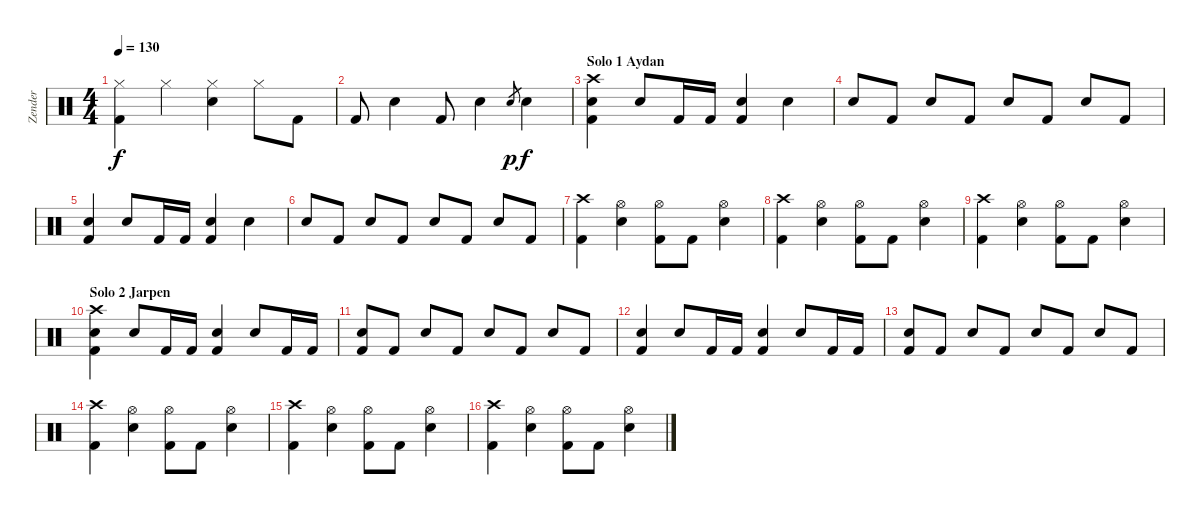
\track ("Zender" "Zender") {instrument percussion}
\staff {score}
\articulation defaults
\ts (4 4)
\tempo 130
\clef neutral
\ks c
("Hi-Hat (closed)" "Kick (hit) 2").4{dy f} "Hi-Hat (closed)".4 ("Electric Snare (hit)" "Hi-Hat (closed)").4 "Hi-Hat (closed)".8 "Kick (hit) 2".8 |
"Kick (hit) 2".8 "Electric Snare (hit)".4 "Kick (hit) 2".8 "Electric Snare (hit)".4 "Electric Snare (hit)".8{gr dy p} "Electric Snare (hit)".4{dy f} |
\section ("" "Solo 1 Aydan")
("Crash high (hit)" "Electric Snare (hit)" "Kick (hit) 2").4{volume 13} "Electric Snare (hit)".8 "Kick (hit) 2".16 "Kick (hit) 2".16 ("Electric Snare (hit)" "Kick (hit) 2").4 "Electric Snare (hit)".4 |
"Electric Snare (hit)".8 "Kick (hit) 2".8 "Electric Snare (hit)".8 "Kick (hit) 2".8 "Electric Snare (hit)".8 "Kick (hit) 2".8 "Electric Snare (hit)".8 "Kick (hit) 2".8 |
("Electric Snare (hit)" "Kick (hit) 2").4 "Electric Snare (hit)".8 "Kick (hit) 2".16 "Kick (hit) 2".16 ("Electric Snare (hit)" "Kick (hit) 2").4 "Electric Snare (hit)".4 |
"Electric Snare (hit)".8 "Kick (hit) 2".8 "Electric Snare (hit)".8 "Kick (hit) 2".8 "Electric Snare (hit)".8 "Kick (hit) 2".8 "Electric Snare (hit)".8 "Kick (hit) 2".8 |
("Crash high (hit)" "Kick (hit) 2").4 ("Hi-Hat (open)" "Electric Snare (hit)").4 ("Hi-Hat (open)" "Kick (hit) 2").8 "Kick (hit) 2".8 ("Hi-Hat (open)" "Electric Snare (hit)").4 |
("Crash high (hit)" "Kick (hit) 2").4 ("Hi-Hat (open)" "Electric Snare (hit)").4 ("Hi-Hat (open)" "Kick (hit) 2").8 "Kick (hit) 2".8 ("Hi-Hat (open)" "Electric Snare (hit)").4 |
("Crash high (hit)" "Kick (hit) 2").4 ("Hi-Hat (open)" "Electric Snare (hit)").4 ("Hi-Hat (open)" "Kick (hit) 2").8 "Kick (hit) 2".8 ("Hi-Hat (open)" "Electric Snare (hit)").4 |
\section ("" "Solo 2 Jarpen")
("Crash high (hit)" "Electric Snare (hit)" "Kick (hit) 2").4 "Electric Snare (hit)".8 "Kick (hit) 2".16 "Kick (hit) 2".16 ("Electric Snare (hit)" "Kick (hit) 2").4 "Electric Snare (hit)".8 "Kick (hit) 2".16 "Kick (hit) 2".16 |
("Electric Snare (hit)" "Kick (hit) 2").8 "Kick (hit) 2".8 "Electric Snare (hit)".8 "Kick (hit) 2".8 "Electric Snare (hit)".8 "Kick (hit) 2".8 "Electric Snare (hit)".8 "Kick (hit) 2".8 |
("Electric Snare (hit)" "Kick (hit) 2").4 "Electric Snare (hit)".8 "Kick (hit) 2".16 "Kick (hit) 2".16 ("Electric Snare (hit)" "Kick (hit) 2").4 "Electric Snare (hit)".8 "Kick (hit) 2".16 "Kick (hit) 2".16 |
("Electric Snare (hit)" "Kick (hit) 2").8 "Kick (hit) 2".8 "Electric Snare (hit)".8 "Kick (hit) 2".8 "Electric Snare (hit)".8 "Kick (hit) 2".8 "Electric Snare (hit)".8 "Kick (hit) 2".8 |
("Crash high (hit)" "Kick (hit) 2").4 ("Hi-Hat (open)" "Electric Snare (hit)").4 ("Hi-Hat (open)" "Kick (hit) 2").8 "Kick (hit) 2".8 ("Hi-Hat (open)" "Electric Snare (hit)").4 |
("Crash high (hit)" "Kick (hit) 2").4 ("Hi-Hat (open)" "Electric Snare (hit)").4 ("Hi-Hat (open)" "Kick (hit) 2").8 "Kick (hit) 2".8 ("Hi-Hat (open)" "Electric Snare (hit)").4 |
("Crash high (hit)" "Kick (hit) 2").4 ("Hi-Hat (open)" "Electric Snare (hit)").4 ("Hi-Hat (open)" "Kick (hit) 2").8 "Kick (hit) 2".8 ("Hi-Hat (open)" "Electric Snare (hit)").4
